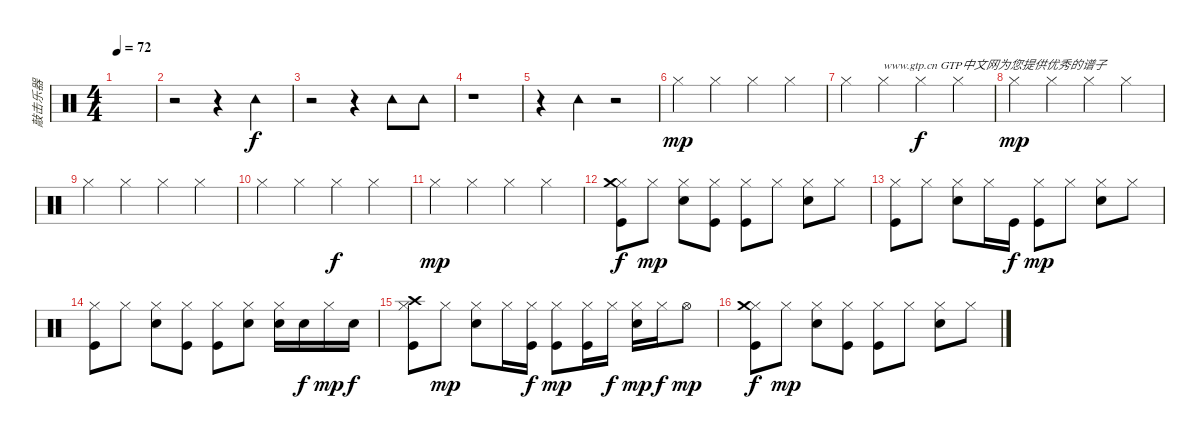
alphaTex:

\track ("敲击乐器" "敲击乐器") {instrument percussion}
\staff {score}
\articulation defaults
\ts (4 4)
\tempo 72
\clef neutral
\ks c
|
r.2 r.4 "Tambourine (hit)".4 |
r.2 r.4 "Tambourine (hit)".8 "Tambourine (hit)".8 |
r.1 |
r.4 "Tambourine (hit)".4 r.2 |
"Hi-Hat (closed)".4{dy mp} "Hi-Hat (closed)".4 "Hi-Hat (closed)".4 "Hi-Hat (closed)".4 |
"Hi-Hat (closed)".4 "Hi-Hat (closed)".4{txt "www.gtp.cn GTP中文网为您提供优秀的谱子"} "Hi-Hat (closed)".4{dy f} "Hi-Hat (closed)".4 |
"Hi-Hat (closed)".4{dy mp} "Hi-Hat (closed)".4 "Hi-Hat (closed)".4 "Hi-Hat (closed)".4 |
"Hi-Hat (closed)".4 "Hi-Hat (closed)".4 "Hi-Hat (closed)".4 "Hi-Hat (closed)".4 |
"Hi-Hat (closed)".4 "Hi-Hat (closed)".4 "Hi-Hat (closed)".4{dy f} "Hi-Hat (closed)".4 |
"Hi-Hat (closed)".4{dy mp} "Hi-Hat (closed)".4 "Hi-Hat (closed)".4 "Hi-Hat (closed)".4 |
("Kick (hit)" "Hi-Hat (closed)" "Crash medium (hit)").8{dy f} "Hi-Hat (closed)".8{dy mp} ("Electric Snare (hit)" "Hi-Hat (closed)").8 ("Kick (hit)" "Hi-Hat (closed)").8 ("Kick (hit)" "Hi-Hat (closed)").8 "Hi-Hat (closed)".8 ("Electric Snare (hit)" "Hi-Hat (closed)").8 "Hi-Hat (closed)".8 |
("Kick (hit)" "Hi-Hat (closed)").8 "Hi-Hat (closed)".8 ("Electric Snare (hit)" "Hi-Hat (closed)").8 "Hi-Hat (closed)".16 "Kick (hit)".16{dy f} ("Kick (hit)" "Hi-Hat (closed)").8{dy mp} "Hi-Hat (closed)".8 ("Electric Snare (hit)" "Hi-Hat (closed)").8 "Hi-Hat (closed)".8 |
("Kick (hit)" "Hi-Hat (closed)").8 "Hi-Hat (closed)".8 ("Electric Snare (hit)" "Hi-Hat (closed)").8 ("Kick (hit)" "Hi-Hat (closed)").8 ("Kick (hit)" "Hi-Hat (closed)").8 ("Electric Snare (hit)" "Hi-Hat (closed)").8 ("Electric Snare (hit)" "Hi-Hat (closed)").16 "Electric Snare (hit)".16{dy f} "Hi-Hat (closed)".16{dy mp} "Electric Snare (hit)".16{dy f} |
("Kick (hit)" "Hi-Hat (closed)" "Crash high (hit)").8 "Hi-Hat (closed)".8{dy mp} ("Electric Snare (hit)" "Hi-Hat (closed)").8 "Hi-Hat (closed)".16 ("Kick (hit)" "Hi-Hat (closed)").16{dy f} ("Kick (hit)" "Hi-Hat (closed)").8{dy mp} ("Kick (hit)" "Hi-Hat (closed)").16 "Hi-Hat (closed)".16{dy f} ("Electric Snare (hit)" "Hi-Hat (closed)").16{dy mp} "Hi-Hat (closed)".16{dy f} "Hi-Hat (open)".8{dy mp} |
("Kick (hit)" "Hi-Hat (closed)" "Crash medium (hit)").8{dy f} "Hi-Hat (closed)".8{dy mp} ("Electric Snare (hit)" "Hi-Hat (closed)").8 ("Kick (hit)" "Hi-Hat (closed)").8 ("Kick (hit)" "Hi-Hat (closed)").8 "Hi-Hat (closed)".8 ("Electric Snare (hit)" "Hi-Hat (closed)").8 "Hi-Hat (closed)".8
